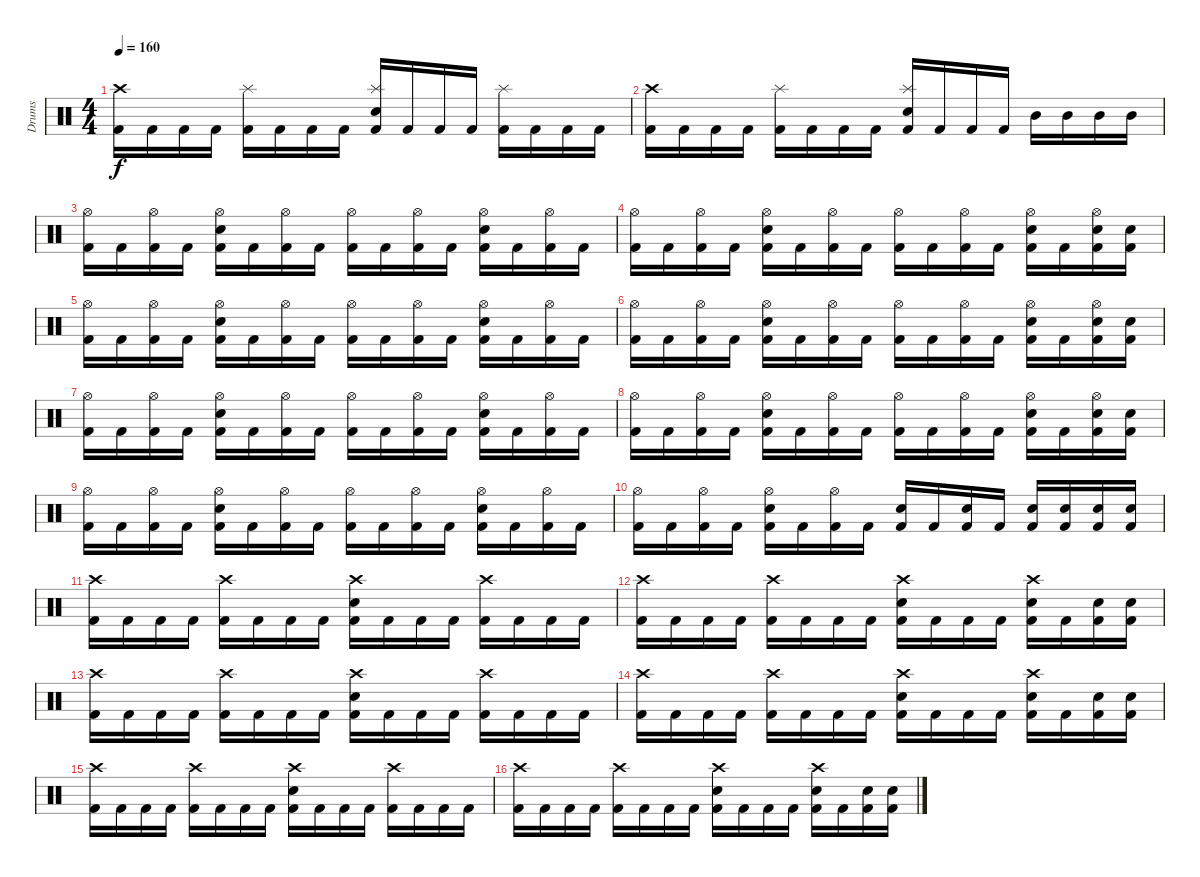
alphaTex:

\track ("Drums" "Drums") {instrument percussion}
\staff {score}
\articulation defaults
\ts (4 4)
\tempo 160
\clef neutral
\ks c
("Crash high (hit)" "Kick (hit) 2").16{dy f} "Kick (hit) 2".16 "Kick (hit) 2".16 "Kick (hit) 2".16 ("Splash (hit)" "Kick (hit) 2").16 "Kick (hit) 2".16 "Kick (hit) 2".16 "Kick (hit) 2".16 ("Splash (hit)" "Electric Snare (hit)" "Kick (hit) 2").16 "Kick (hit) 2".16 "Kick (hit) 2".16 "Kick (hit) 2".16 ("Splash (hit)" "Kick (hit) 2").16 "Kick (hit) 2".16 "Kick (hit) 2".16 "Kick (hit) 2".16 |
("Crash high (hit)" "Kick (hit) 2").16 "Kick (hit) 2".16 "Kick (hit) 2".16 "Kick (hit) 2".16 ("Splash (hit)" "Kick (hit) 2").16 "Kick (hit) 2".16 "Kick (hit) 2".16 "Kick (hit) 2".16 ("Splash (hit)" "Electric Snare (hit)" "Kick (hit) 2").16 "Kick (hit) 2".16 "Kick (hit) 2".16 "Kick (hit) 2".16 "Mid Tom (hit)".16 "Mid Tom (hit)".16 "Mid Tom (hit)".16 "Mid Tom (hit)".16 |
\section ("" " ")
("Hi-Hat (open)" "Kick (hit) 2").16 "Kick (hit) 2".16 ("Hi-Hat (open)" "Kick (hit) 2").16 "Kick (hit) 2".16 ("Hi-Hat (open)" "Electric Snare (hit)" "Kick (hit) 2").16 "Kick (hit) 2".16 ("Hi-Hat (open)" "Kick (hit) 2").16 "Kick (hit) 2".16 ("Hi-Hat (open)" "Kick (hit) 2").16 "Kick (hit) 2".16 ("Hi-Hat (open)" "Kick (hit) 2").16 "Kick (hit) 2".16 ("Hi-Hat (open)" "Electric Snare (hit)" "Kick (hit) 2").16 "Kick (hit) 2".16 ("Hi-Hat (open)" "Kick (hit) 2").16 "Kick (hit) 2".16 |
("Hi-Hat (open)" "Kick (hit) 2").16 "Kick (hit) 2".16 ("Hi-Hat (open)" "Kick (hit) 2").16 "Kick (hit) 2".16 ("Hi-Hat (open)" "Electric Snare (hit)" "Kick (hit) 2").16 "Kick (hit) 2".16 ("Hi-Hat (open)" "Kick (hit) 2").16 "Kick (hit) 2".16 ("Hi-Hat (open)" "Kick (hit) 2").16 "Kick (hit) 2".16 ("Hi-Hat (open)" "Kick (hit) 2").16 "Kick (hit) 2".16 ("Hi-Hat (open)" "Electric Snare (hit)" "Kick (hit) 2").16 "Kick (hit) 2".16 ("Hi-Hat (open)" "Electric Snare (hit)" "Kick (hit) 2").16 ("Electric Snare (hit)" "Kick (hit) 2").16 |
("Hi-Hat (open)" "Kick (hit) 2").16 "Kick (hit) 2".16 ("Hi-Hat (open)" "Kick (hit) 2").16 "Kick (hit) 2".16 ("Hi-Hat (open)" "Electric Snare (hit)" "Kick (hit) 2").16 "Kick (hit) 2".16 ("Hi-Hat (open)" "Kick (hit) 2").16 "Kick (hit) 2".16 ("Hi-Hat (open)" "Kick (hit) 2").16 "Kick (hit) 2".16 ("Hi-Hat (open)" "Kick (hit) 2").16 "Kick (hit) 2".16 ("Hi-Hat (open)" "Electric Snare (hit)" "Kick (hit) 2").16 "Kick (hit) 2".16 ("Hi-Hat (open)" "Kick (hit) 2").16 "Kick (hit) 2".16 |
("Hi-Hat (open)" "Kick (hit) 2").16 "Kick (hit) 2".16 ("Hi-Hat (open)" "Kick (hit) 2").16 "Kick (hit) 2".16 ("Hi-Hat (open)" "Electric Snare (hit)" "Kick (hit) 2").16 "Kick (hit) 2".16 ("Hi-Hat (open)" "Kick (hit) 2").16 "Kick (hit) 2".16 ("Hi-Hat (open)" "Kick (hit) 2").16 "Kick (hit) 2".16 ("Hi-Hat (open)" "Kick (hit) 2").16 "Kick (hit) 2".16 ("Hi-Hat (open)" "Electric Snare (hit)" "Kick (hit) 2").16 "Kick (hit) 2".16 ("Hi-Hat (open)" "Electric Snare (hit)" "Kick (hit) 2").16 ("Electric Snare (hit)" "Kick (hit) 2").16 |
("Hi-Hat (open)" "Kick (hit) 2").16 "Kick (hit) 2".16 ("Hi-Hat (open)" "Kick (hit) 2").16 "Kick (hit) 2".16 ("Hi-Hat (open)" "Electric Snare (hit)" "Kick (hit) 2").16 "Kick (hit) 2".16 ("Hi-Hat (open)" "Kick (hit) 2").16 "Kick (hit) 2".16 ("Hi-Hat (open)" "Kick (hit) 2").16 "Kick (hit) 2".16 ("Hi-Hat (open)" "Kick (hit) 2").16 "Kick (hit) 2".16 ("Hi-Hat (open)" "Electric Snare (hit)" "Kick (hit) 2").16 "Kick (hit) 2".16 ("Hi-Hat (open)" "Kick (hit) 2").16 "Kick (hit) 2".16 |
("Hi-Hat (open)" "Kick (hit) 2").16 "Kick (hit) 2".16 ("Hi-Hat (open)" "Kick (hit) 2").16 "Kick (hit) 2".16 ("Hi-Hat (open)" "Electric Snare (hit)" "Kick (hit) 2").16 "Kick (hit) 2".16 ("Hi-Hat (open)" "Kick (hit) 2").16 "Kick (hit) 2".16 ("Hi-Hat (open)" "Kick (hit) 2").16 "Kick (hit) 2".16 ("Hi-Hat (open)" "Kick (hit) 2").16 "Kick (hit) 2".16 ("Hi-Hat (open)" "Electric Snare (hit)" "Kick (hit) 2").16 "Kick (hit) 2".16 ("Hi-Hat (open)" "Electric Snare (hit)" "Kick (hit) 2").16 ("Electric Snare (hit)" "Kick (hit) 2").16 |
("Hi-Hat (open)" "Kick (hit) 2").16 "Kick (hit) 2".16 ("Hi-Hat (open)" "Kick (hit) 2").16 "Kick (hit) 2".16 ("Hi-Hat (open)" "Electric Snare (hit)" "Kick (hit) 2").16 "Kick (hit) 2".16 ("Hi-Hat (open)" "Kick (hit) 2").16 "Kick (hit) 2".16 ("Hi-Hat (open)" "Kick (hit) 2").16 "Kick (hit) 2".16 ("Hi-Hat (open)" "Kick (hit) 2").16 "Kick (hit) 2".16 ("Hi-Hat (open)" "Electric Snare (hit)" "Kick (hit) 2").16 "Kick (hit) 2".16 ("Hi-Hat (open)" "Kick (hit) 2").16 "Kick (hit) 2".16 |
("Hi-Hat (open)" "Kick (hit) 2").16 "Kick (hit) 2".16 ("Hi-Hat (open)" "Kick (hit) 2").16 "Kick (hit) 2".16 ("Hi-Hat (open)" "Electric Snare (hit)" "Kick (hit) 2").16 "Kick (hit) 2".16 ("Hi-Hat (open)" "Kick (hit) 2").16 "Kick (hit) 2".16 ("Electric Snare (hit)" "Kick (hit) 2").16 "Kick (hit) 2".16 ("Electric Snare (hit)" "Kick (hit) 2").16 "Kick (hit) 2".16 ("Electric Snare (hit)" "Kick (hit) 2").16 ("Electric Snare (hit)" "Kick (hit) 2").16 ("Electric Snare (hit)" "Kick (hit) 2").16 ("Electric Snare (hit)" "Kick (hit) 2").16 |
("Crash high (hit)" "Kick (hit) 2").16 "Kick (hit) 2".16 "Kick (hit) 2".16 "Kick (hit) 2".16 ("Crash high (hit)" "Kick (hit) 2").16 "Kick (hit) 2".16 "Kick (hit) 2".16 "Kick (hit) 2".16 ("Crash high (hit)" "Electric Snare (hit)" "Kick (hit) 2").16 "Kick (hit) 2".16 "Kick (hit) 2".16 "Kick (hit) 2".16 ("Crash high (hit)" "Kick (hit) 2").16 "Kick (hit) 2".16 "Kick (hit) 2".16 "Kick (hit) 2".16 |
("Crash high (hit)" "Kick (hit) 2").16 "Kick (hit) 2".16 "Kick (hit) 2".16 "Kick (hit) 2".16 ("Crash high (hit)" "Kick (hit) 2").16 "Kick (hit) 2".16 "Kick (hit) 2".16 "Kick (hit) 2".16 ("Crash high (hit)" "Electric Snare (hit)" "Kick (hit) 2").16 "Kick (hit) 2".16 "Kick (hit) 2".16 "Kick (hit) 2".16 ("Crash high (hit)" "Electric Snare (hit)" "Kick (hit) 2").16 "Kick (hit) 2".16 ("Electric Snare (hit)" "Kick (hit) 2").16 ("Electric Snare (hit)" "Kick (hit) 2").16 |
("Crash high (hit)" "Kick (hit) 2").16 "Kick (hit) 2".16 "Kick (hit) 2".16 "Kick (hit) 2".16 ("Crash high (hit)" "Kick (hit) 2").16 "Kick (hit) 2".16 "Kick (hit) 2".16 "Kick (hit) 2".16 ("Crash high (hit)" "Electric Snare (hit)" "Kick (hit) 2").16 "Kick (hit) 2".16 "Kick (hit) 2".16 "Kick (hit) 2".16 ("Crash high (hit)" "Kick (hit) 2").16 "Kick (hit) 2".16 "Kick (hit) 2".16 "Kick (hit) 2".16 |
("Crash high (hit)" "Kick (hit) 2").16 "Kick (hit) 2".16 "Kick (hit) 2".16 "Kick (hit) 2".16 ("Crash high (hit)" "Kick (hit) 2").16 "Kick (hit) 2".16 "Kick (hit) 2".16 "Kick (hit) 2".16 ("Crash high (hit)" "Electric Snare (hit)" "Kick (hit) 2").16 "Kick (hit) 2".16 "Kick (hit) 2".16 "Kick (hit) 2".16 ("Crash high (hit)" "Electric Snare (hit)" "Kick (hit) 2").16 "Kick (hit) 2".16 ("Electric Snare (hit)" "Kick (hit) 2").16 ("Electric Snare (hit)" "Kick (hit) 2").16 |
("Crash high (hit)" "Kick (hit) 2").16 "Kick (hit) 2".16 "Kick (hit) 2".16 "Kick (hit) 2".16 ("Crash high (hit)" "Kick (hit) 2").16 "Kick (hit) 2".16 "Kick (hit) 2".16 "Kick (hit) 2".16 ("Crash high (hit)" "Electric Snare (hit)" "Kick (hit) 2").16 "Kick (hit) 2".16 "Kick (hit) 2".16 "Kick (hit) 2".16 ("Crash high (hit)" "Kick (hit) 2").16 "Kick (hit) 2".16 "Kick (hit) 2".16 "Kick (hit) 2".16 |
("Crash high (hit)" "Kick (hit) 2").16 "Kick (hit) 2".16 "Kick (hit) 2".16 "Kick (hit) 2".16 ("Crash high (hit)" "Kick (hit) 2").16 "Kick (hit) 2".16 "Kick (hit) 2".16 "Kick (hit) 2".16 ("Crash high (hit)" "Electric Snare (hit)" "Kick (hit) 2").16 "Kick (hit) 2".16 "Kick (hit) 2".16 "Kick (hit) 2".16 ("Crash high (hit)" "Electric Snare (hit)" "Kick (hit) 2").16 "Kick (hit) 2".16 ("Electric Snare (hit)" "Kick (hit) 2").16 ("Electric Snare (hit)" "Kick (hit) 2").16
